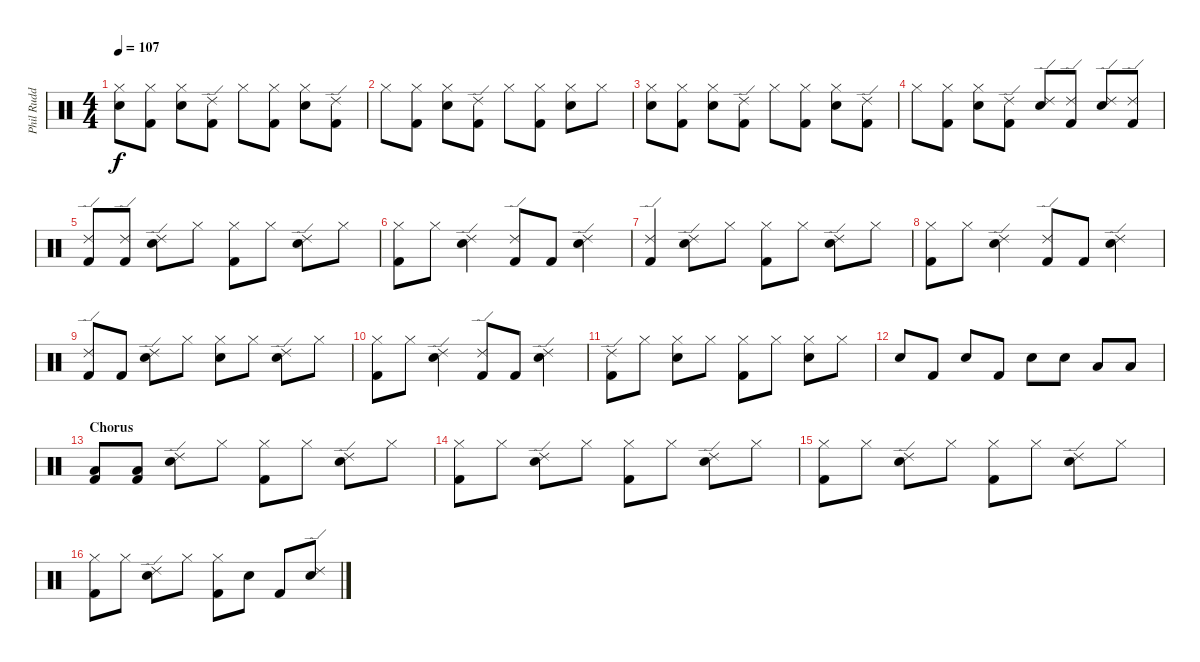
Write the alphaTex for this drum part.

\track ("Phil Rudd" "Phil Rudd") {instrument percussion}
\staff {score}
\articulation defaults
\ts (4 4)
\tempo 107
\clef neutral
\ks c
("Hi-Hat (closed)" "Snare (hit) 2").8{dy f} ("Hi-Hat (closed)" "Kick (hit) 2").8 ("Hi-Hat (closed)" "Snare (hit) 2").8 ("Kick (hit) 2" "Ride (edge) 2").8 "Hi-Hat (closed)".8 ("Hi-Hat (closed)" "Kick (hit) 2").8 ("Hi-Hat (closed)" "Snare (hit) 2").8 ("Kick (hit) 2" "Ride (edge) 2").8 |
"Hi-Hat (closed)".8 ("Hi-Hat (closed)" "Kick (hit) 2").8 ("Hi-Hat (closed)" "Snare (hit) 2").8 ("Kick (hit) 2" "Ride (edge) 2").8 "Hi-Hat (closed)".8 ("Hi-Hat (closed)" "Kick (hit) 2").8 ("Hi-Hat (closed)" "Snare (hit) 2").8 "Hi-Hat (closed)".8 |
("Hi-Hat (closed)" "Snare (hit) 2").8 ("Hi-Hat (closed)" "Kick (hit) 2").8 ("Hi-Hat (closed)" "Snare (hit) 2").8 ("Kick (hit) 2" "Ride (edge) 2").8 "Hi-Hat (closed)".8 ("Hi-Hat (closed)" "Kick (hit) 2").8 ("Hi-Hat (closed)" "Snare (hit) 2").8 ("Kick (hit) 2" "Ride (edge) 2").8 |
"Hi-Hat (closed)".8 ("Hi-Hat (closed)" "Kick (hit) 2").8 ("Hi-Hat (closed)" "Snare (hit) 2").8 ("Kick (hit) 2" "Ride (edge) 2").8 ("Snare (hit) 2" "Ride (edge) 2").8 ("Kick (hit) 2" "Ride (edge) 2").8 ("Snare (hit) 2" "Ride (edge) 2").8 ("Kick (hit) 2" "Ride (edge) 2").8 |
("Kick (hit) 2" "Ride (edge) 2").8 ("Kick (hit) 2" "Ride (edge) 2").8 ("Snare (hit) 2" "Ride (edge) 2").8 "Hi-Hat (closed)".8 ("Hi-Hat (closed)" "Kick (hit) 2").8 "Hi-Hat (closed)".8 ("Snare (hit) 2" "Ride (edge) 2").8 "Hi-Hat (closed)".8 |
("Hi-Hat (closed)" "Kick (hit) 2").8 "Hi-Hat (closed)".8 ("Snare (hit) 2" "Ride (edge) 2").4 ("Kick (hit) 2" "Ride (edge) 2").8 "Kick (hit) 2".8 ("Snare (hit) 2" "Ride (edge) 2").4 |
("Kick (hit) 2" "Ride (edge) 2").4 ("Snare (hit) 2" "Ride (edge) 2").8 "Hi-Hat (closed)".8 ("Hi-Hat (closed)" "Kick (hit) 2").8 "Hi-Hat (closed)".8 ("Snare (hit) 2" "Ride (edge) 2").8 "Hi-Hat (closed)".8 |
("Hi-Hat (closed)" "Kick (hit) 2").8 "Hi-Hat (closed)".8 ("Snare (hit) 2" "Ride (edge) 2").4 ("Kick (hit) 2" "Ride (edge) 2").8 "Kick (hit) 2".8 ("Snare (hit) 2" "Ride (edge) 2").4 |
("Kick (hit) 2" "Ride (edge) 2").8 "Kick (hit) 2".8 ("Snare (hit) 2" "Ride (edge) 2").8 "Hi-Hat (closed)".8 ("Hi-Hat (closed)" "Snare (hit) 2").8 "Hi-Hat (closed)".8 ("Snare (hit) 2" "Ride (edge) 2").8 "Hi-Hat (closed)".8 |
("Hi-Hat (closed)" "Kick (hit) 2").8 "Hi-Hat (closed)".8 ("Snare (hit) 2" "Ride (edge) 2").4 ("Kick (hit) 2" "Ride (edge) 2").8 "Kick (hit) 2".8 ("Snare (hit) 2" "Ride (edge) 2").4 |
("Kick (hit) 2" "Ride (edge) 2").8 "Hi-Hat (closed)".8 ("Hi-Hat (closed)" "Snare (hit) 2").8 "Hi-Hat (closed)".8 ("Hi-Hat (closed)" "Kick (hit) 2").8 "Hi-Hat (closed)".8 ("Hi-Hat (closed)" "Snare (hit) 2").8 "Hi-Hat (closed)".8 |
"Snare (hit) 2".8 "Kick (hit) 2".8 "Snare (hit) 2".8 "Kick (hit) 2".8 "Snare (hit) 2".8 "Snare (hit) 2".8 "Low Tom (hit)".8 "Low Tom (hit)".8 |
\section ("" "Chorus")
("Kick (hit) 2" "Low Floor Tom (hit)").8 ("Kick (hit) 2" "Low Floor Tom (hit)").8 ("Snare (hit) 2" "Ride (edge) 2").8 "Hi-Hat (closed)".8 ("Hi-Hat (closed)" "Kick (hit) 2").8 "Hi-Hat (closed)".8 ("Snare (hit) 2" "Ride (edge) 2").8 "Hi-Hat (closed)".8 |
("Hi-Hat (closed)" "Kick (hit) 2").8 "Hi-Hat (closed)".8 ("Snare (hit) 2" "Ride (edge) 2").8 "Hi-Hat (closed)".8 ("Hi-Hat (closed)" "Kick (hit) 2").8 "Hi-Hat (closed)".8 ("Snare (hit) 2" "Ride (edge) 2").8 "Hi-Hat (closed)".8 |
("Hi-Hat (closed)" "Kick (hit) 2").8 "Hi-Hat (closed)".8 ("Snare (hit) 2" "Ride (edge) 2").8 "Hi-Hat (closed)".8 ("Hi-Hat (closed)" "Kick (hit) 2").8 "Hi-Hat (closed)".8 ("Snare (hit) 2" "Ride (edge) 2").8 "Hi-Hat (closed)".8 |
("Hi-Hat (closed)" "Kick (hit) 2").8 "Hi-Hat (closed)".8 ("Snare (hit) 2" "Ride (edge) 2").8 "Hi-Hat (closed)".8 ("Hi-Hat (closed)" "Kick (hit) 2").8 "Snare (hit) 2".8 "Kick (hit) 2".8 ("Snare (hit) 2" "Ride (edge) 2").8
